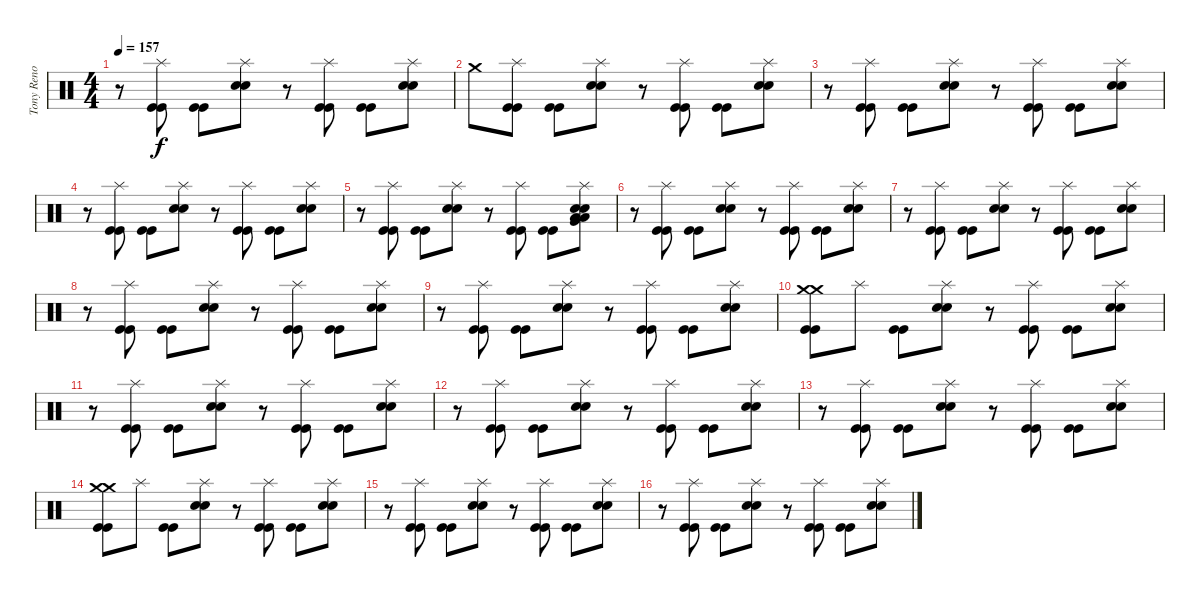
\track ("Tony Reno ( 1984 < Ian Haughland )" "Tony Reno ") {instrument percussion}
\staff {score}
\articulation defaults
\ts (4 4)
\tempo 157
\clef neutral
\ks c
r.8{dy f} ("Kick (hit)" "Kick (hit)" "Splash (hit)").8 ("Kick (hit)" "Kick (hit)").8 ("Splash (hit)" "Electric Snare (hit)" "Electric Snare (hit)").8 r.8 ("Kick (hit)" "Kick (hit)" "Splash (hit)").8 ("Kick (hit)" "Kick (hit)").8 ("Splash (hit)" "Electric Snare (hit)" "Electric Snare (hit)").8 |
"Crash medium (hit)".8 ("Kick (hit)" "Kick (hit)" "Splash (hit)").8 ("Kick (hit)" "Kick (hit)").8 ("Splash (hit)" "Electric Snare (hit)" "Electric Snare (hit)").8 r.8 ("Kick (hit)" "Kick (hit)" "Splash (hit)").8 ("Kick (hit)" "Kick (hit)").8 ("Splash (hit)" "Electric Snare (hit)" "Electric Snare (hit)").8 |
r.8 ("Kick (hit)" "Kick (hit)" "Splash (hit)").8 ("Kick (hit)" "Kick (hit)").8 ("Splash (hit)" "Electric Snare (hit)" "Electric Snare (hit)").8 r.8 ("Kick (hit)" "Kick (hit)" "Splash (hit)").8 ("Kick (hit)" "Kick (hit)").8 ("Splash (hit)" "Electric Snare (hit)" "Electric Snare (hit)").8 |
r.8 ("Kick (hit)" "Kick (hit)" "Splash (hit)").8 ("Kick (hit)" "Kick (hit)").8 ("Splash (hit)" "Electric Snare (hit)" "Electric Snare (hit)").8 r.8 ("Kick (hit)" "Kick (hit)" "Splash (hit)").8 ("Kick (hit)" "Kick (hit)").8 ("Splash (hit)" "Electric Snare (hit)" "Electric Snare (hit)").8 |
r.8 ("Kick (hit)" "Kick (hit)" "Splash (hit)").8 ("Kick (hit)" "Kick (hit)").8 ("Splash (hit)" "Electric Snare (hit)" "Electric Snare (hit)").8 r.8 ("Kick (hit)" "Kick (hit)" "Splash (hit)").8 ("Kick (hit)" "Kick (hit)").8 ("Low Tom (hit)" "Very Low Tom (hit)" "Low Floor Tom (hit)" "Splash (hit)" "Electric Snare (hit)" "Electric Snare (hit)").8 |
r.8 ("Kick (hit)" "Kick (hit)" "Splash (hit)").8 ("Kick (hit)" "Kick (hit)").8 ("Splash (hit)" "Electric Snare (hit)" "Electric Snare (hit)").8 r.8 ("Kick (hit)" "Kick (hit)" "Splash (hit)").8 ("Kick (hit)" "Kick (hit)").8 ("Splash (hit)" "Electric Snare (hit)" "Electric Snare (hit)").8 |
r.8 ("Kick (hit)" "Kick (hit)" "Splash (hit)").8 ("Kick (hit)" "Kick (hit)").8 ("Splash (hit)" "Electric Snare (hit)" "Electric Snare (hit)").8 r.8 ("Kick (hit)" "Kick (hit)" "Splash (hit)").8 ("Kick (hit)" "Kick (hit)").8 ("Splash (hit)" "Electric Snare (hit)" "Electric Snare (hit)").8 |
r.8 ("Kick (hit)" "Kick (hit)" "Splash (hit)").8 ("Kick (hit)" "Kick (hit)").8 ("Splash (hit)" "Electric Snare (hit)" "Electric Snare (hit)").8 r.8 ("Kick (hit)" "Kick (hit)" "Splash (hit)").8 ("Kick (hit)" "Kick (hit)").8 ("Splash (hit)" "Electric Snare (hit)" "Electric Snare (hit)").8 |
r.8 ("Kick (hit)" "Kick (hit)" "Splash (hit)").8 ("Kick (hit)" "Kick (hit)").8 ("Splash (hit)" "Electric Snare (hit)" "Electric Snare (hit)").8 r.8 ("Kick (hit)" "Kick (hit)" "Splash (hit)").8 ("Kick (hit)" "Kick (hit)").8 ("Splash (hit)" "Electric Snare (hit)" "Electric Snare (hit)").8 |
("Crash medium (hit)" "Kick (hit)" "Kick (hit)" "Crash medium (hit)").8 "Splash (hit)".8 ("Kick (hit)" "Kick (hit)").8 ("Splash (hit)" "Electric Snare (hit)" "Electric Snare (hit)").8 r.8 ("Kick (hit)" "Kick (hit)" "Splash (hit)").8 ("Kick (hit)" "Kick (hit)").8 ("Splash (hit)" "Electric Snare (hit)" "Electric Snare (hit)").8 |
r.8 ("Kick (hit)" "Kick (hit)" "Splash (hit)").8 ("Kick (hit)" "Kick (hit)").8 ("Splash (hit)" "Electric Snare (hit)" "Electric Snare (hit)").8 r.8 ("Kick (hit)" "Kick (hit)" "Splash (hit)").8 ("Kick (hit)" "Kick (hit)").8 ("Splash (hit)" "Electric Snare (hit)" "Electric Snare (hit)").8 |
r.8 ("Kick (hit)" "Kick (hit)" "Splash (hit)").8 ("Kick (hit)" "Kick (hit)").8 ("Splash (hit)" "Electric Snare (hit)" "Electric Snare (hit)").8 r.8 ("Kick (hit)" "Kick (hit)" "Splash (hit)").8 ("Kick (hit)" "Kick (hit)").8 ("Splash (hit)" "Electric Snare (hit)" "Electric Snare (hit)").8 |
r.8 ("Kick (hit)" "Kick (hit)" "Splash (hit)").8 ("Kick (hit)" "Kick (hit)").8 ("Splash (hit)" "Electric Snare (hit)" "Electric Snare (hit)").8 r.8 ("Kick (hit)" "Kick (hit)" "Splash (hit)").8 ("Kick (hit)" "Kick (hit)").8 ("Splash (hit)" "Electric Snare (hit)" "Electric Snare (hit)").8 |
("Crash medium (hit)" "Kick (hit)" "Kick (hit)" "Crash medium (hit)").8 "Splash (hit)".8 ("Kick (hit)" "Kick (hit)").8 ("Splash (hit)" "Electric Snare (hit)" "Electric Snare (hit)").8 r.8 ("Kick (hit)" "Kick (hit)" "Splash (hit)").8 ("Kick (hit)" "Kick (hit)").8 ("Splash (hit)" "Electric Snare (hit)" "Electric Snare (hit)").8 |
r.8 ("Kick (hit)" "Kick (hit)" "Splash (hit)").8 ("Kick (hit)" "Kick (hit)").8 ("Splash (hit)" "Electric Snare (hit)" "Electric Snare (hit)").8 r.8 ("Kick (hit)" "Kick (hit)" "Splash (hit)").8 ("Kick (hit)" "Kick (hit)").8 ("Splash (hit)" "Electric Snare (hit)" "Electric Snare (hit)").8 |
r.8 ("Kick (hit)" "Kick (hit)" "Splash (hit)").8 ("Kick (hit)" "Kick (hit)").8 ("Splash (hit)" "Electric Snare (hit)" "Electric Snare (hit)").8 r.8 ("Kick (hit)" "Kick (hit)" "Splash (hit)").8 ("Kick (hit)" "Kick (hit)").8 ("Splash (hit)" "Electric Snare (hit)" "Electric Snare (hit)").8
